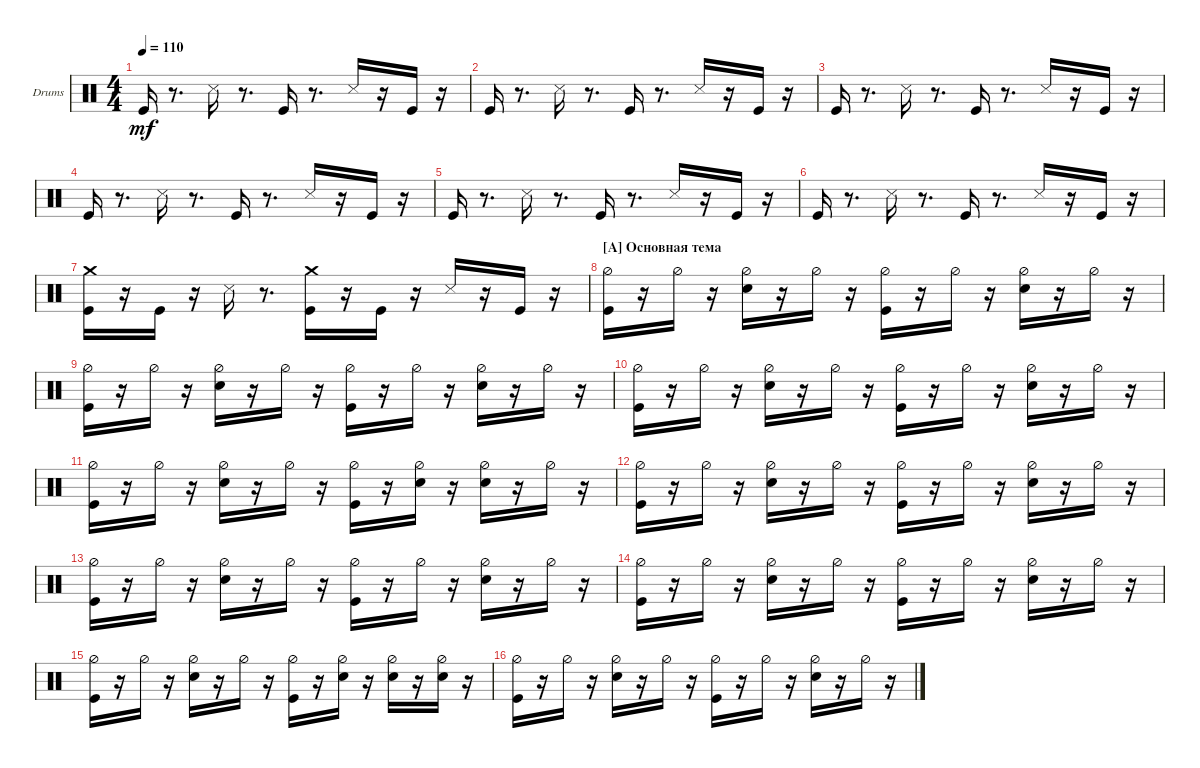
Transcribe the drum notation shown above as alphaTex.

\defaultSystemsLayout 4
\bracketExtendMode groupsimilarinstruments
\firstSystemTrackNameOrientation horizontal
\otherSystemsTrackNameOrientation horizontal
\track ("Барабаны" "Drums") {instrument percussion}
\staff {score}
\articulation defaults
\ts (4 4)
\tempo 110
\clef neutral
\ks c "Kick (hit)".16{dy mf}
r.8{d} "Snare (side stick) 3".16 r.8{d} "Kick (hit)".16 r.8{d} "Snare (side stick) 3".16 r.16 "Kick (hit)".16 r.16 |
"Kick (hit)".16 r.8{d} "Snare (side stick) 3".16 r.8{d} "Kick (hit)".16 r.8{d} "Snare (side stick) 3".16 r.16 "Kick (hit)".16 r.16 |
"Kick (hit)".16 r.8{d} "Snare (side stick) 3".16 r.8{d} "Kick (hit)".16 r.8{d} "Snare (side stick) 3".16 r.16 "Kick (hit)".16 r.16 |
"Kick (hit)".16 r.8{d} "Snare (side stick) 3".16 r.8{d} "Kick (hit)".16 r.8{d} "Snare (side stick) 3".16 r.16 "Kick (hit)".16 r.16 |
"Kick (hit)".16 r.8{d} "Snare (side stick) 3".16 r.8{d} "Kick (hit)".16 r.8{d} "Snare (side stick) 3".16 r.16 "Kick (hit)".16 r.16 |
"Kick (hit)".16 r.8{d} "Snare (side stick) 3".16 r.8{d} "Kick (hit)".16 r.8{d} "Snare (side stick) 3".16 r.16 "Kick (hit)".16 r.16 |
("Kick (hit)" "Crash medium (hit)").16 r.16 "Kick (hit)".16 r.16 "Snare (side stick) 3".16 r.8{d} ("Kick (hit)" "Crash medium (hit)").16 r.16 "Kick (hit)".16 r.16 "Snare (side stick) 3".16 r.16 "Kick (hit)".16 r.16 |
\section ("A" "Основная тема")
("Kick (hit)" "Hi-Hat (half)").16 r.16 "Hi-Hat (half)".16 r.16 ("Hi-Hat (half)" "Snare (hit) 2").16 r.16 "Hi-Hat (half)".16 r.16 ("Kick (hit)" "Hi-Hat (half)").16 r.16 "Hi-Hat (half)".16 r.16 ("Hi-Hat (half)" "Snare (hit) 2").16 r.16 "Hi-Hat (half)".16 r.16 |
("Kick (hit)" "Hi-Hat (half)").16 r.16 "Hi-Hat (half)".16 r.16 ("Hi-Hat (half)" "Snare (hit) 2").16 r.16 "Hi-Hat (half)".16 r.16 ("Kick (hit)" "Hi-Hat (half)").16 r.16 "Hi-Hat (half)".16 r.16 ("Hi-Hat (half)" "Snare (hit) 2").16 r.16 "Hi-Hat (half)".16 r.16 |
("Kick (hit)" "Hi-Hat (half)").16 r.16 "Hi-Hat (half)".16 r.16 ("Hi-Hat (half)" "Snare (hit) 2").16 r.16 "Hi-Hat (half)".16 r.16 ("Kick (hit)" "Hi-Hat (half)").16 r.16 "Hi-Hat (half)".16 r.16 ("Hi-Hat (half)" "Snare (hit) 2").16 r.16 "Hi-Hat (half)".16 r.16 |
("Kick (hit)" "Hi-Hat (half)").16 r.16 "Hi-Hat (half)".16 r.16 ("Hi-Hat (half)" "Snare (hit) 2").16 r.16 "Hi-Hat (half)".16 r.16 ("Kick (hit)" "Hi-Hat (half)").16 r.16 ("Hi-Hat (half)" "Snare (hit) 2").16 r.16 ("Hi-Hat (half)" "Snare (hit) 2").16 r.16 "Hi-Hat (half)".16 r.16 |
("Kick (hit)" "Hi-Hat (half)").16 r.16 "Hi-Hat (half)".16 r.16 ("Hi-Hat (half)" "Snare (hit) 2").16 r.16 "Hi-Hat (half)".16 r.16 ("Kick (hit)" "Hi-Hat (half)").16 r.16 "Hi-Hat (half)".16 r.16 ("Hi-Hat (half)" "Snare (hit) 2").16 r.16 "Hi-Hat (half)".16 r.16 |
("Kick (hit)" "Hi-Hat (half)").16 r.16 "Hi-Hat (half)".16 r.16 ("Hi-Hat (half)" "Snare (hit) 2").16 r.16 "Hi-Hat (half)".16 r.16 ("Kick (hit)" "Hi-Hat (half)").16 r.16 "Hi-Hat (half)".16 r.16 ("Hi-Hat (half)" "Snare (hit) 2").16 r.16 "Hi-Hat (half)".16 r.16 |
("Kick (hit)" "Hi-Hat (half)").16 r.16 "Hi-Hat (half)".16 r.16 ("Hi-Hat (half)" "Snare (hit) 2").16 r.16 "Hi-Hat (half)".16 r.16 ("Kick (hit)" "Hi-Hat (half)").16 r.16 "Hi-Hat (half)".16 r.16 ("Hi-Hat (half)" "Snare (hit) 2").16 r.16 "Hi-Hat (half)".16 r.16 |
("Kick (hit)" "Hi-Hat (half)").16 r.16 "Hi-Hat (half)".16 r.16 ("Hi-Hat (half)" "Snare (hit) 2").16 r.16 "Hi-Hat (half)".16 r.16 ("Kick (hit)" "Hi-Hat (half)").16 r.16 ("Hi-Hat (half)" "Snare (hit) 2").16 r.16 ("Hi-Hat (half)" "Snare (hit) 2").16 r.16 ("Hi-Hat (half)" "Snare (hit) 2").16 r.16 |
("Kick (hit)" "Hi-Hat (half)").16 r.16 "Hi-Hat (half)".16 r.16 ("Hi-Hat (half)" "Snare (hit) 2").16 r.16 "Hi-Hat (half)".16 r.16 ("Kick (hit)" "Hi-Hat (half)").16 r.16 "Hi-Hat (half)".16 r.16 ("Hi-Hat (half)" "Snare (hit) 2").16 r.16 "Hi-Hat (half)".16 r.16
